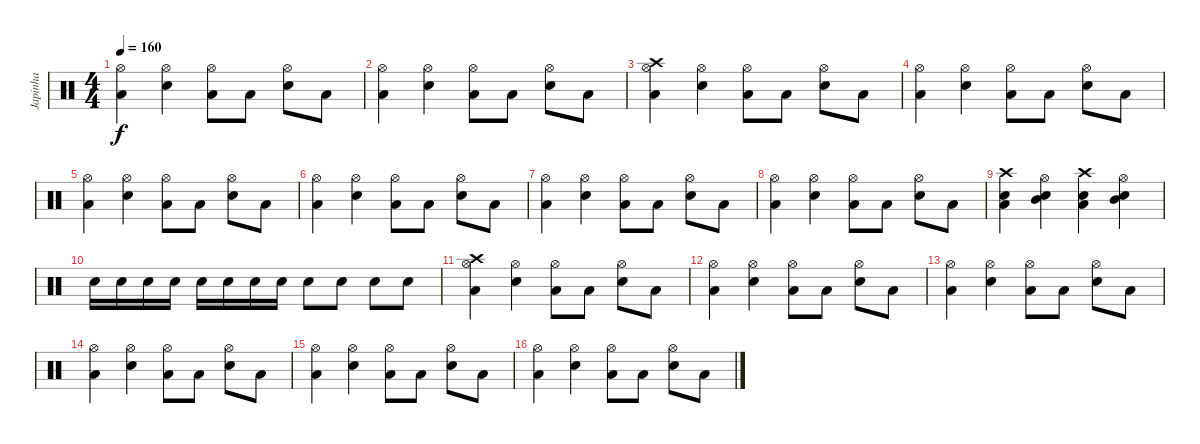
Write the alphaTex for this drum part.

\track ("Japinha" "Japinha") {instrument percussion}
\staff {score}
\articulation defaults
\ts (4 4)
\tempo 160
\clef neutral
\ks c
("Hi-Hat (open)" "Low Tom (hit)").4{dy f} ("Hi-Hat (open)" "Snare (hit) 2").4 ("Hi-Hat (open)" "Low Tom (hit)").8 "Low Tom (hit)".8 ("Hi-Hat (open)" "Snare (hit) 2").8 "Low Tom (hit)".8 |
("Hi-Hat (open)" "Low Tom (hit)").4 ("Hi-Hat (open)" "Snare (hit) 2").4 ("Hi-Hat (open)" "Low Tom (hit)").8 "Low Tom (hit)".8 ("Hi-Hat (open)" "Snare (hit) 2").8 "Low Tom (hit)".8 |
("Crash high (hit)" "Hi-Hat (open)" "Low Tom (hit)").4 ("Hi-Hat (open)" "Snare (hit) 2").4 ("Hi-Hat (open)" "Low Tom (hit)").8 "Low Tom (hit)".8 ("Hi-Hat (open)" "Snare (hit) 2").8 "Low Tom (hit)".8 |
("Hi-Hat (open)" "Low Tom (hit)").4 ("Hi-Hat (open)" "Snare (hit) 2").4 ("Hi-Hat (open)" "Low Tom (hit)").8 "Low Tom (hit)".8 ("Hi-Hat (open)" "Snare (hit) 2").8 "Low Tom (hit)".8 |
("Hi-Hat (open)" "Low Tom (hit)").4 ("Hi-Hat (open)" "Snare (hit) 2").4 ("Hi-Hat (open)" "Low Tom (hit)").8 "Low Tom (hit)".8 ("Hi-Hat (open)" "Snare (hit) 2").8 "Low Tom (hit)".8 |
("Hi-Hat (open)" "Low Tom (hit)").4 ("Hi-Hat (open)" "Snare (hit) 2").4 ("Hi-Hat (open)" "Low Tom (hit)").8 "Low Tom (hit)".8 ("Hi-Hat (open)" "Snare (hit) 2").8 "Low Tom (hit)".8 |
("Hi-Hat (open)" "Low Tom (hit)").4 ("Hi-Hat (open)" "Snare (hit) 2").4 ("Hi-Hat (open)" "Low Tom (hit)").8 "Low Tom (hit)".8 ("Hi-Hat (open)" "Snare (hit) 2").8 "Low Tom (hit)".8 |
("Hi-Hat (open)" "Low Tom (hit)").4 ("Hi-Hat (open)" "Snare (hit) 2").4 ("Hi-Hat (open)" "Low Tom (hit)").8 "Low Tom (hit)".8 ("Hi-Hat (open)" "Snare (hit) 2").8 "Low Tom (hit)".8 |
("Crash high (hit)" "Low Tom (hit)" "Snare (hit) 2").4 ("Hi-Hat (open)" "Mid Tom (hit)" "Electric Snare (hit)").4 ("Crash high (hit)" "Low Tom (hit)" "Snare (hit) 2").4 ("Hi-Hat (open)" "Mid Tom (hit)" "Electric Snare (hit)").4 |
"Snare (hit) 2".16 "Snare (hit) 2".16 "Snare (hit) 2".16 "Snare (hit) 2".16 "Snare (hit) 2".16 "Snare (hit) 2".16 "Snare (hit) 2".16 "Snare (hit) 2".16 "Electric Snare (hit)".8 "Electric Snare (hit)".8 "Electric Snare (hit)".8 "Electric Snare (hit)".8 |
("Crash high (hit)" "Hi-Hat (open)" "Low Tom (hit)").4 ("Hi-Hat (open)" "Snare (hit) 2").4 ("Hi-Hat (open)" "Low Tom (hit)").8 "Low Tom (hit)".8 ("Hi-Hat (open)" "Snare (hit) 2").8 "Low Tom (hit)".8 |
("Hi-Hat (open)" "Low Tom (hit)").4 ("Hi-Hat (open)" "Snare (hit) 2").4 ("Hi-Hat (open)" "Low Tom (hit)").8 "Low Tom (hit)".8 ("Hi-Hat (open)" "Snare (hit) 2").8 "Low Tom (hit)".8 |
("Hi-Hat (open)" "Low Tom (hit)").4 ("Hi-Hat (open)" "Snare (hit) 2").4 ("Hi-Hat (open)" "Low Tom (hit)").8 "Low Tom (hit)".8 ("Hi-Hat (open)" "Snare (hit) 2").8 "Low Tom (hit)".8 |
("Hi-Hat (open)" "Low Tom (hit)").4 ("Hi-Hat (open)" "Snare (hit) 2").4 ("Hi-Hat (open)" "Low Tom (hit)").8 "Low Tom (hit)".8 ("Hi-Hat (open)" "Snare (hit) 2").8 "Low Tom (hit)".8 |
("Hi-Hat (open)" "Low Tom (hit)").4 ("Hi-Hat (open)" "Snare (hit) 2").4 ("Hi-Hat (open)" "Low Tom (hit)").8 "Low Tom (hit)".8 ("Hi-Hat (open)" "Snare (hit) 2").8 "Low Tom (hit)".8 |
("Hi-Hat (open)" "Low Tom (hit)").4 ("Hi-Hat (open)" "Snare (hit) 2").4 ("Hi-Hat (open)" "Low Tom (hit)").8 "Low Tom (hit)".8 ("Hi-Hat (open)" "Snare (hit) 2").8 "Low Tom (hit)".8
